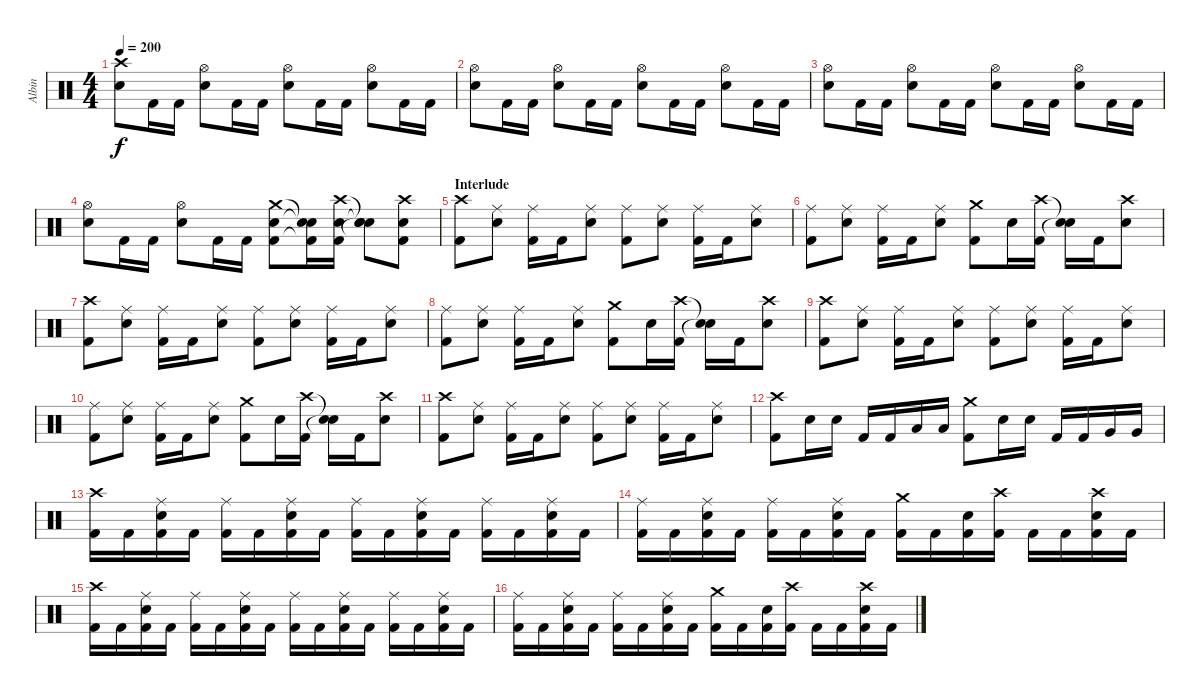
\track ("Albin" "Albin") {instrument percussion}
\staff {score}
\articulation defaults
\ts (4 4)
\tempo 200
\clef neutral
\ks c
("Crash high (hit)" "Snare (hit) 2").8{dy f} "Kick (hit) 2".16 "Kick (hit) 2".16 ("Hi-Hat (open)" "Snare (hit) 2").8 "Kick (hit) 2".16 "Kick (hit) 2".16 ("Hi-Hat (open)" "Snare (hit) 2").8 "Kick (hit) 2".16 "Kick (hit) 2".16 ("Hi-Hat (open)" "Snare (hit) 2").8 "Kick (hit) 2".16 "Kick (hit) 2".16 |
("Hi-Hat (open)" "Snare (hit) 2").8 "Kick (hit) 2".16 "Kick (hit) 2".16 ("Hi-Hat (open)" "Snare (hit) 2").8 "Kick (hit) 2".16 "Kick (hit) 2".16 ("Hi-Hat (open)" "Snare (hit) 2").8 "Kick (hit) 2".16 "Kick (hit) 2".16 ("Hi-Hat (open)" "Snare (hit) 2").8 "Kick (hit) 2".16 "Kick (hit) 2".16 |
("Hi-Hat (open)" "Snare (hit) 2").8 "Kick (hit) 2".16 "Kick (hit) 2".16 ("Hi-Hat (open)" "Snare (hit) 2").8 "Kick (hit) 2".16 "Kick (hit) 2".16 ("Hi-Hat (open)" "Snare (hit) 2").8 "Kick (hit) 2".16 "Kick (hit) 2".16 ("Hi-Hat (open)" "Snare (hit) 2").8 "Kick (hit) 2".16 "Kick (hit) 2".16 |
("Hi-Hat (open)" "Snare (hit) 2").8 "Kick (hit) 2".16 "Kick (hit) 2".16 ("Hi-Hat (open)" "Snare (hit) 2").8 "Kick (hit) 2".16 "Kick (hit) 2".16 ("Crash medium (hit)" "Snare (hit) 2" "Kick (hit) 2").8 ("Snare (hit)"{t} "Snare (hit)"{t} "Kick (hit) 2"{t}).16 ("Crash high (hit)" "Snare (hit) 2" "Kick (hit) 2").16 ("Snare (hit)"{t} "Snare (hit)"{t} "Snare (hit)"{t}).8 ("Crash high (hit)" "Snare (hit) 2" "Kick (hit) 2").8 |
\section ("" "Interlude")
("Crash high (hit)" "Kick (hit) 2").8 ("Ride (middle)" "Snare (hit) 2").8 ("Ride (middle)" "Kick (hit) 2").16 "Kick (hit) 2".16 ("Ride (middle)" "Snare (hit) 2").8 ("Ride (middle)" "Kick (hit) 2").8 ("Ride (middle)" "Snare (hit) 2").8 ("Ride (middle)" "Kick (hit) 2").16 "Kick (hit) 2".16 ("Ride (middle)" "Snare (hit) 2").8 |
("Ride (middle)" "Kick (hit) 2").8 ("Ride (middle)" "Snare (hit) 2").8 ("Ride (middle)" "Kick (hit) 2").16 "Kick (hit) 2".16 ("Ride (middle)" "Snare (hit) 2").8 ("Crash medium (hit)" "Kick (hit) 2").8 "Snare (hit) 2".16 ("Crash high (hit)" "Kick (hit) 2").16 ("Snare (hit)"{t} "Snare (hit)"{t}).16 "Kick (hit) 2".16 ("Crash high (hit)" "Snare (hit) 2").8 |
("Crash high (hit)" "Kick (hit) 2").8 ("Ride (middle)" "Snare (hit) 2").8 ("Ride (middle)" "Kick (hit) 2").16 "Kick (hit) 2".16 ("Ride (middle)" "Snare (hit) 2").8 ("Ride (middle)" "Kick (hit) 2").8 ("Ride (middle)" "Snare (hit) 2").8 ("Ride (middle)" "Kick (hit) 2").16 "Kick (hit) 2".16 ("Ride (middle)" "Snare (hit) 2").8 |
("Ride (middle)" "Kick (hit) 2").8 ("Ride (middle)" "Snare (hit) 2").8 ("Ride (middle)" "Kick (hit) 2").16 "Kick (hit) 2".16 ("Ride (middle)" "Snare (hit) 2").8 ("Crash medium (hit)" "Kick (hit) 2").8 "Snare (hit) 2".16 ("Crash high (hit)" "Kick (hit) 2").16 ("Snare (hit)"{t} "Snare (hit)"{t}).16 "Kick (hit) 2".16 ("Crash high (hit)" "Snare (hit) 2").8 |
("Crash high (hit)" "Kick (hit) 2").8 ("Ride (middle)" "Snare (hit) 2").8 ("Ride (middle)" "Kick (hit) 2").16 "Kick (hit) 2".16 ("Ride (middle)" "Snare (hit) 2").8 ("Ride (middle)" "Kick (hit) 2").8 ("Ride (middle)" "Snare (hit) 2").8 ("Ride (middle)" "Kick (hit) 2").16 "Kick (hit) 2".16 ("Ride (middle)" "Snare (hit) 2").8 |
("Ride (middle)" "Kick (hit) 2").8 ("Ride (middle)" "Snare (hit) 2").8 ("Ride (middle)" "Kick (hit) 2").16 "Kick (hit) 2".16 ("Ride (middle)" "Snare (hit) 2").8 ("Crash medium (hit)" "Kick (hit) 2").8 "Snare (hit) 2".16 ("Crash high (hit)" "Kick (hit) 2").16 ("Snare (hit)"{t} "Snare (hit)"{t}).16 "Kick (hit) 2".16 ("Crash high (hit)" "Snare (hit) 2").8 |
("Crash high (hit)" "Kick (hit) 2").8 ("Ride (middle)" "Snare (hit) 2").8 ("Ride (middle)" "Kick (hit) 2").16 "Kick (hit) 2".16 ("Ride (middle)" "Snare (hit) 2").8 ("Ride (middle)" "Kick (hit) 2").8 ("Ride (middle)" "Snare (hit) 2").8 ("Ride (middle)" "Kick (hit) 2").16 "Kick (hit) 2".16 ("Ride (middle)" "Snare (hit) 2").8 |
("Crash high (hit)" "Kick (hit) 2").8 "Snare (hit) 2".16 "Snare (hit) 2".16 "Kick (hit) 2".16 "Kick (hit) 2".16 "Low Tom (hit)".16 "Low Tom (hit)".16 ("Crash medium (hit)" "Kick (hit) 2").8 "Snare (hit) 2".16 "Snare (hit) 2".16 "Kick (hit) 2".16 "Kick (hit) 2".16 "Very Low Tom (hit)".16 "Very Low Tom (hit)".16 |
\section ("" "")
("Crash high (hit)" "Kick (hit) 2").16 "Kick (hit) 2".16 ("Ride (middle)" "Snare (hit) 2" "Kick (hit) 2").16 "Kick (hit) 2".16 ("Ride (middle)" "Kick (hit) 2").16 "Kick (hit) 2".16 ("Ride (middle)" "Snare (hit) 2" "Kick (hit) 2").16 "Kick (hit) 2".16 ("Ride (middle)" "Kick (hit) 2").16 "Kick (hit) 2".16 ("Ride (middle)" "Snare (hit) 2" "Kick (hit) 2").16 "Kick (hit) 2".16 ("Ride (middle)" "Kick (hit) 2").16 "Kick (hit) 2".16 ("Ride (middle)" "Snare (hit) 2" "Kick (hit) 2").16 "Kick (hit) 2".16 |
("Ride (middle)" "Kick (hit) 2").16 "Kick (hit) 2".16 ("Ride (middle)" "Snare (hit) 2" "Kick (hit) 2").16 "Kick (hit) 2".16 ("Ride (middle)" "Kick (hit) 2").16 "Kick (hit) 2".16 ("Ride (middle)" "Snare (hit) 2" "Kick (hit) 2").16 "Kick (hit) 2".16 ("Crash medium (hit)" "Kick (hit) 2").16 "Kick (hit) 2".16 ("Snare (hit) 2" "Kick (hit) 2").16 ("Crash high (hit)" "Kick (hit) 2").16 "Kick (hit) 2".16 "Kick (hit) 2".16 ("Crash high (hit)" "Snare (hit) 2" "Kick (hit) 2").16 "Kick (hit) 2".16 |
("Crash high (hit)" "Kick (hit) 2").16 "Kick (hit) 2".16 ("Ride (middle)" "Snare (hit) 2" "Kick (hit) 2").16 "Kick (hit) 2".16 ("Ride (middle)" "Kick (hit) 2").16 "Kick (hit) 2".16 ("Ride (middle)" "Snare (hit) 2" "Kick (hit) 2").16 "Kick (hit) 2".16 ("Ride (middle)" "Kick (hit) 2").16 "Kick (hit) 2".16 ("Ride (middle)" "Snare (hit) 2" "Kick (hit) 2").16 "Kick (hit) 2".16 ("Ride (middle)" "Kick (hit) 2").16 "Kick (hit) 2".16 ("Ride (middle)" "Snare (hit) 2" "Kick (hit) 2").16 "Kick (hit) 2".16 |
("Ride (middle)" "Kick (hit) 2").16 "Kick (hit) 2".16 ("Ride (middle)" "Snare (hit) 2" "Kick (hit) 2").16 "Kick (hit) 2".16 ("Ride (middle)" "Kick (hit) 2").16 "Kick (hit) 2".16 ("Ride (middle)" "Snare (hit) 2" "Kick (hit) 2").16 "Kick (hit) 2".16 ("Crash medium (hit)" "Kick (hit) 2").16 "Kick (hit) 2".16 ("Snare (hit) 2" "Kick (hit) 2").16 ("Crash high (hit)" "Kick (hit) 2").16 "Kick (hit) 2".16 "Kick (hit) 2".16 ("Crash high (hit)" "Snare (hit) 2" "Kick (hit) 2").16 "Kick (hit) 2".16
